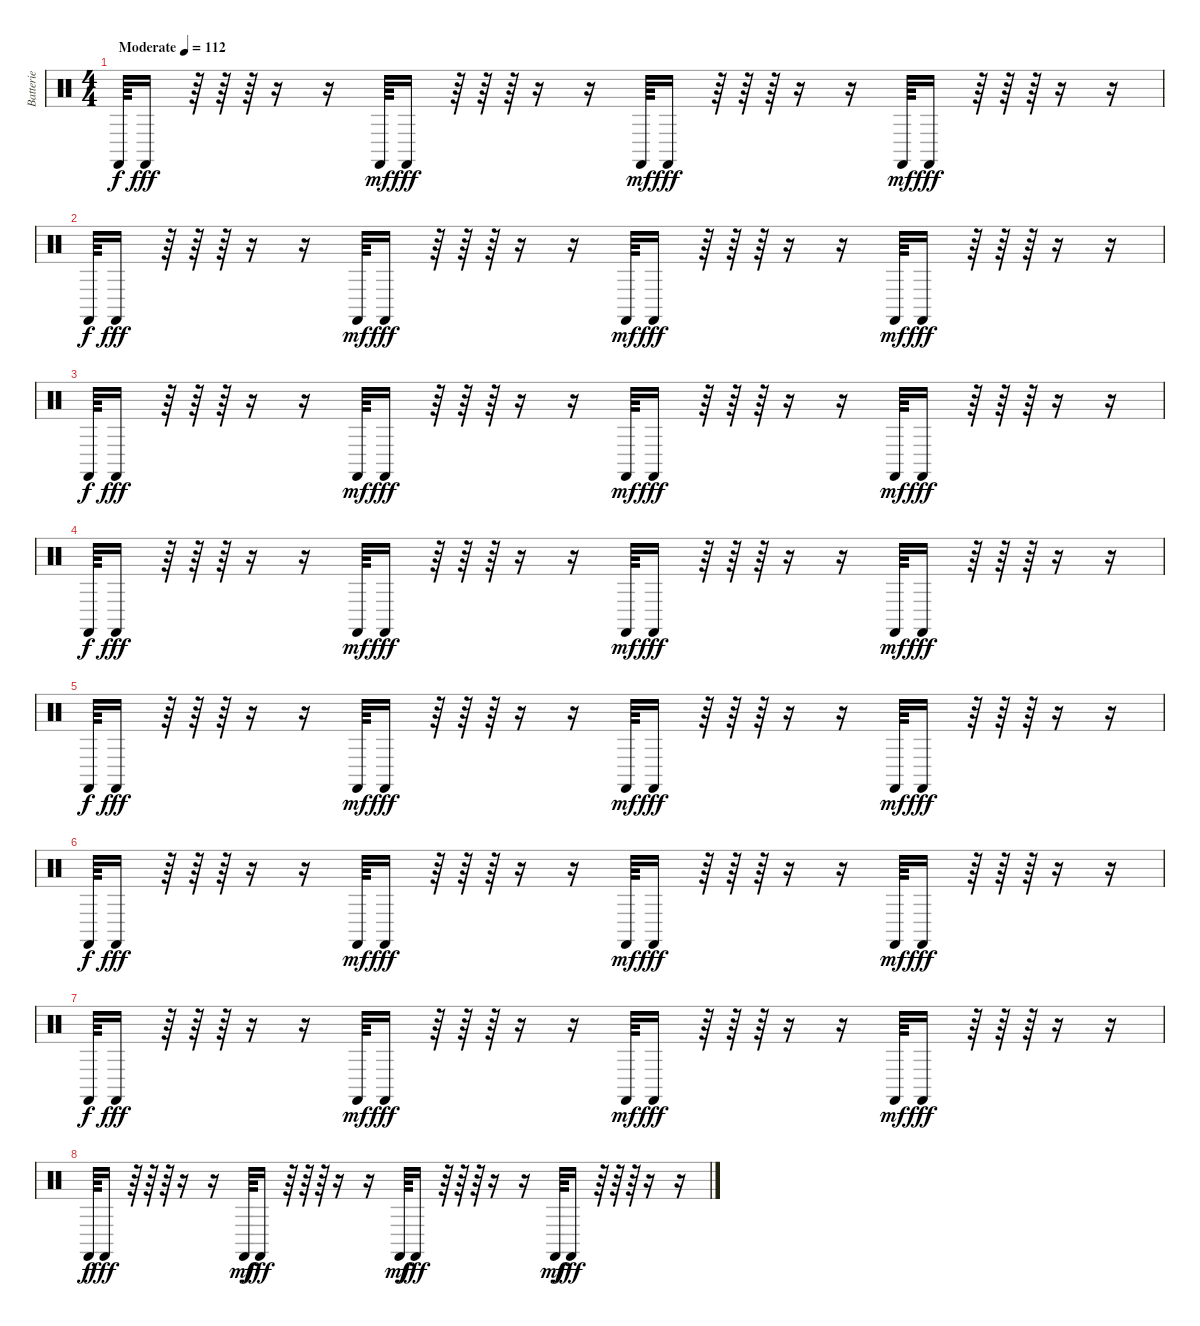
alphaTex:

\track ("Batterie" "Batterie") {instrument percussion}
\staff {score}
\articulation defaults
\ts (4 4)
\tempo (112 "Moderate")
\clef neutral
\ks c "Castanets (hit)".64{dy f} "Castanets (hit)".16{dy fff}
r.64 r.64 r.64 r.16 r.16 "Castanets (hit)".64{dy mf} "Castanets (hit)".16{dy fff} r.64 r.64 r.64 r.16 r.16 "Castanets (hit)".64{dy mf} "Castanets (hit)".16{dy fff} r.64 r.64 r.64 r.16 r.16 "Castanets (hit)".64{dy mf} "Castanets (hit)".16{dy fff} r.64 r.64 r.64 r.16 r.16 |
"Castanets (hit)".64{dy f} "Castanets (hit)".16{dy fff} r.64 r.64 r.64 r.16 r.16 "Castanets (hit)".64{dy mf} "Castanets (hit)".16{dy fff} r.64 r.64 r.64 r.16 r.16 "Castanets (hit)".64{dy mf} "Castanets (hit)".16{dy fff} r.64 r.64 r.64 r.16 r.16 "Castanets (hit)".64{dy mf} "Castanets (hit)".16{dy fff} r.64 r.64 r.64 r.16 r.16 |
"Castanets (hit)".64{dy f} "Castanets (hit)".16{dy fff} r.64 r.64 r.64 r.16 r.16 "Castanets (hit)".64{dy mf} "Castanets (hit)".16{dy fff} r.64 r.64 r.64 r.16 r.16 "Castanets (hit)".64{dy mf} "Castanets (hit)".16{dy fff} r.64 r.64 r.64 r.16 r.16 "Castanets (hit)".64{dy mf} "Castanets (hit)".16{dy fff} r.64 r.64 r.64 r.16 r.16 |
"Castanets (hit)".64{dy f} "Castanets (hit)".16{dy fff} r.64 r.64 r.64 r.16 r.16 "Castanets (hit)".64{dy mf} "Castanets (hit)".16{dy fff} r.64 r.64 r.64 r.16 r.16 "Castanets (hit)".64{dy mf} "Castanets (hit)".16{dy fff} r.64 r.64 r.64 r.16 r.16 "Castanets (hit)".64{dy mf} "Castanets (hit)".16{dy fff} r.64 r.64 r.64 r.16 r.16 |
"Castanets (hit)".64{dy f} "Castanets (hit)".16{dy fff} r.64 r.64 r.64 r.16 r.16 "Castanets (hit)".64{dy mf} "Castanets (hit)".16{dy fff} r.64 r.64 r.64 r.16 r.16 "Castanets (hit)".64{dy mf} "Castanets (hit)".16{dy fff} r.64 r.64 r.64 r.16 r.16 "Castanets (hit)".64{dy mf} "Castanets (hit)".16{dy fff} r.64 r.64 r.64 r.16 r.16 |
"Castanets (hit)".64{dy f} "Castanets (hit)".16{dy fff} r.64 r.64 r.64 r.16 r.16 "Castanets (hit)".64{dy mf} "Castanets (hit)".16{dy fff} r.64 r.64 r.64 r.16 r.16 "Castanets (hit)".64{dy mf} "Castanets (hit)".16{dy fff} r.64 r.64 r.64 r.16 r.16 "Castanets (hit)".64{dy mf} "Castanets (hit)".16{dy fff} r.64 r.64 r.64 r.16 r.16 |
"Castanets (hit)".64{dy f} "Castanets (hit)".16{dy fff} r.64 r.64 r.64 r.16 r.16 "Castanets (hit)".64{dy mf} "Castanets (hit)".16{dy fff} r.64 r.64 r.64 r.16 r.16 "Castanets (hit)".64{dy mf} "Castanets (hit)".16{dy fff} r.64 r.64 r.64 r.16 r.16 "Castanets (hit)".64{dy mf} "Castanets (hit)".16{dy fff} r.64 r.64 r.64 r.16 r.16 |
"Castanets (hit)".64{dy f} "Castanets (hit)".16{dy fff} r.64 r.64 r.64 r.16 r.16 "Castanets (hit)".64{dy mf} "Castanets (hit)".16{dy fff} r.64 r.64 r.64 r.16 r.16 "Castanets (hit)".64{dy mf} "Castanets (hit)".16{dy fff} r.64 r.64 r.64 r.16 r.16 "Castanets (hit)".64{dy mf} "Castanets (hit)".16{dy fff} r.64 r.64 r.64 r.16 r.16
